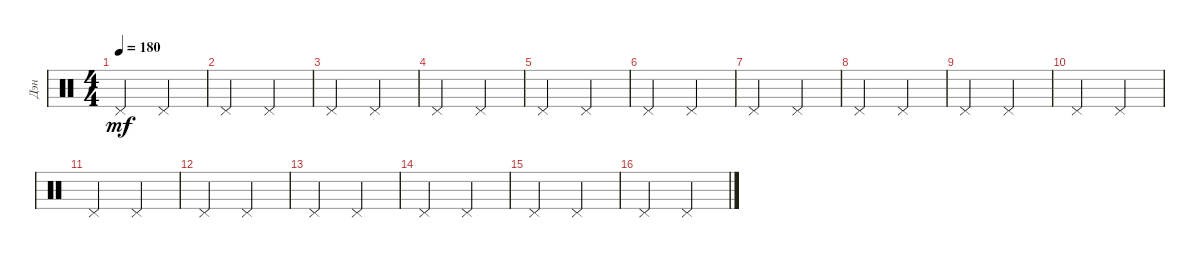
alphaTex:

\track ("Дэн" "Дэн") {instrument percussion}
\staff {score}
\articulation defaults
\ts (4 4)
\tempo 180
\clef neutral
\ks c "Pedal Hi-Hat (hit)".2{dy mf} "Pedal Hi-Hat (hit)".2
|
"Pedal Hi-Hat (hit)".2 "Pedal Hi-Hat (hit)".2 |
"Pedal Hi-Hat (hit)".2 "Pedal Hi-Hat (hit)".2 |
"Pedal Hi-Hat (hit)".2 "Pedal Hi-Hat (hit)".2 |
"Pedal Hi-Hat (hit)".2 "Pedal Hi-Hat (hit)".2 |
"Pedal Hi-Hat (hit)".2 "Pedal Hi-Hat (hit)".2 |
"Pedal Hi-Hat (hit)".2 "Pedal Hi-Hat (hit)".2 |
"Pedal Hi-Hat (hit)".2 "Pedal Hi-Hat (hit)".2 |
"Pedal Hi-Hat (hit)".2 "Pedal Hi-Hat (hit)".2 |
"Pedal Hi-Hat (hit)".2 "Pedal Hi-Hat (hit)".2 |
"Pedal Hi-Hat (hit)".2 "Pedal Hi-Hat (hit)".2 |
"Pedal Hi-Hat (hit)".2 "Pedal Hi-Hat (hit)".2 |
"Pedal Hi-Hat (hit)".2 "Pedal Hi-Hat (hit)".2 |
"Pedal Hi-Hat (hit)".2 "Pedal Hi-Hat (hit)".2 |
"Pedal Hi-Hat (hit)".2 "Pedal Hi-Hat (hit)".2 |
"Pedal Hi-Hat (hit)".2 "Pedal Hi-Hat (hit)".2
